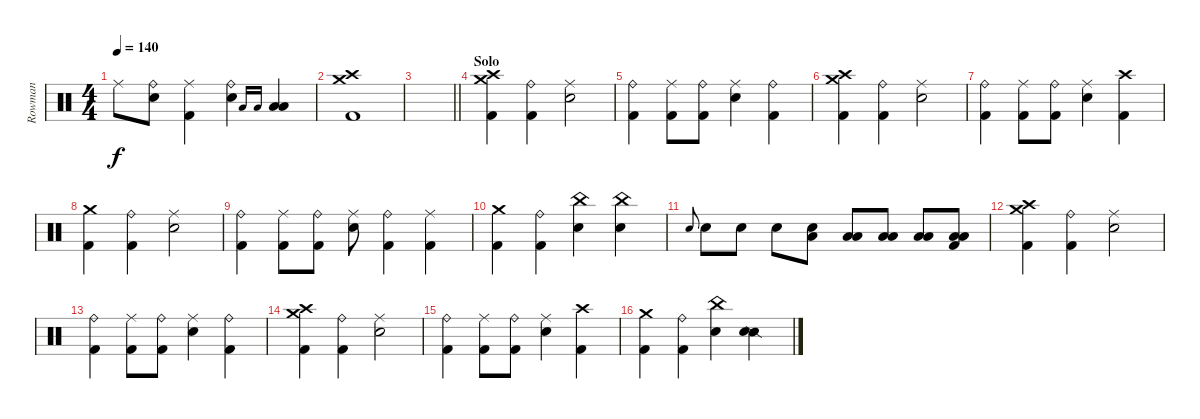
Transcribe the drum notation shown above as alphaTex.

\track ("Rowman" "Rowman") {instrument percussion}
\staff {score}
\articulation defaults
\ts (4 4)
\tempo 140
\clef neutral
\ks c "Ride (middle)".8{dy f}
("Ride (bell)" "Snare (hit) 2").8 ("Ride (middle)" "Kick (hit) 2").4 ("Ride (bell)" "Snare (hit) 2").4 "Low Floor Tom (hit)".16{gr onbeat} "Low Tom (hit)".16{gr onbeat} ("Low Floor Tom (hit)" "Low Tom (hit)").4 |
("Crash high (hit)" "Crash medium (hit)" "Kick (hit) 2").1 |
\barLineRight lightlight
|
\section ("" "Solo")
("Crash medium (hit)" "Crash high (hit)" "Kick (hit) 2").4 ("Ride (bell)" "Kick (hit) 2").4 ("Ride (middle)" "Snare (hit) 2").2 |
("Ride (bell)" "Kick (hit) 2").4 ("Ride (middle)" "Kick (hit) 2").8 ("Ride (bell)" "Kick (hit) 2").8 ("Ride (middle)" "Snare (hit) 2").4 ("Ride (bell)" "Kick (hit) 2").4 |
("Crash medium (hit)" "Crash high (hit)" "Kick (hit) 2").4 ("Ride (bell)" "Kick (hit) 2").4 ("Ride (middle)" "Snare (hit) 2").2 |
("Ride (bell)" "Kick (hit) 2").4 ("Ride (middle)" "Kick (hit) 2").8 ("Ride (bell)" "Kick (hit) 2").8 ("Ride (middle)" "Snare (hit) 2").4 ("Crash high (hit)" "Kick (hit) 2").4 |
("Crash medium (hit)" "Kick (hit) 2").4 ("Ride (bell)" "Kick (hit) 2").4 ("Ride (middle)" "Snare (hit) 2").2 |
("Ride (bell)" "Kick (hit) 2").4 ("Ride (middle)" "Kick (hit) 2").8 ("Ride (bell)" "Kick (hit) 2").8 ("Ride (middle)" "Snare (hit) 2").8 ("Ride (bell)" "Kick (hit) 2").4 ("Ride (middle)" "Kick (hit) 2").4 |
("Crash medium (hit)" "Kick (hit) 2").4 ("Ride (bell)" "Kick (hit) 2").4 ("China (hit)" "Snare (hit) 2").4 ("China (hit)" "Snare (hit) 2").4 |
"Snare (hit) 2".8{gr onbeat} "Snare (hit) 2".8 "Snare (hit) 2".8 "Snare (hit) 2".8 ("Low Floor Tom (hit)" "Snare (hit) 2").8 ("Low Floor Tom (hit)" "Low Tom (hit)").8 ("Low Floor Tom (hit)" "Low Tom (hit)").8 ("Low Tom (hit)" "Low Floor Tom (hit)").8 ("Low Tom (hit)" "Low Floor Tom (hit)" "Kick (hit) 2").8 |
("Crash medium (hit)" "Crash high (hit)" "Kick (hit) 2").4 ("Ride (bell)" "Kick (hit) 2").4 ("Ride (middle)" "Snare (hit) 2").2 |
("Ride (bell)" "Kick (hit) 2").4 ("Ride (middle)" "Kick (hit) 2").8 ("Ride (bell)" "Kick (hit) 2").8 ("Ride (middle)" "Snare (hit) 2").4 ("Ride (bell)" "Kick (hit) 2").4 |
("Crash medium (hit)" "Crash high (hit)" "Kick (hit) 2").4 ("Ride (bell)" "Kick (hit) 2").4 ("Ride (middle)" "Snare (hit) 2").2 |
("Ride (bell)" "Kick (hit) 2").4 ("Ride (middle)" "Kick (hit) 2").8 ("Ride (bell)" "Kick (hit) 2").8 ("Ride (middle)" "Snare (hit) 2").4 ("Crash high (hit)" "Kick (hit) 2").4 |
("Crash medium (hit)" "Kick (hit) 2").4 ("Ride (bell)" "Kick (hit) 2").4 ("China (hit)" "Snare (hit) 2").4 ("Snare (side stick) 2" "Snare (hit) 2").4
